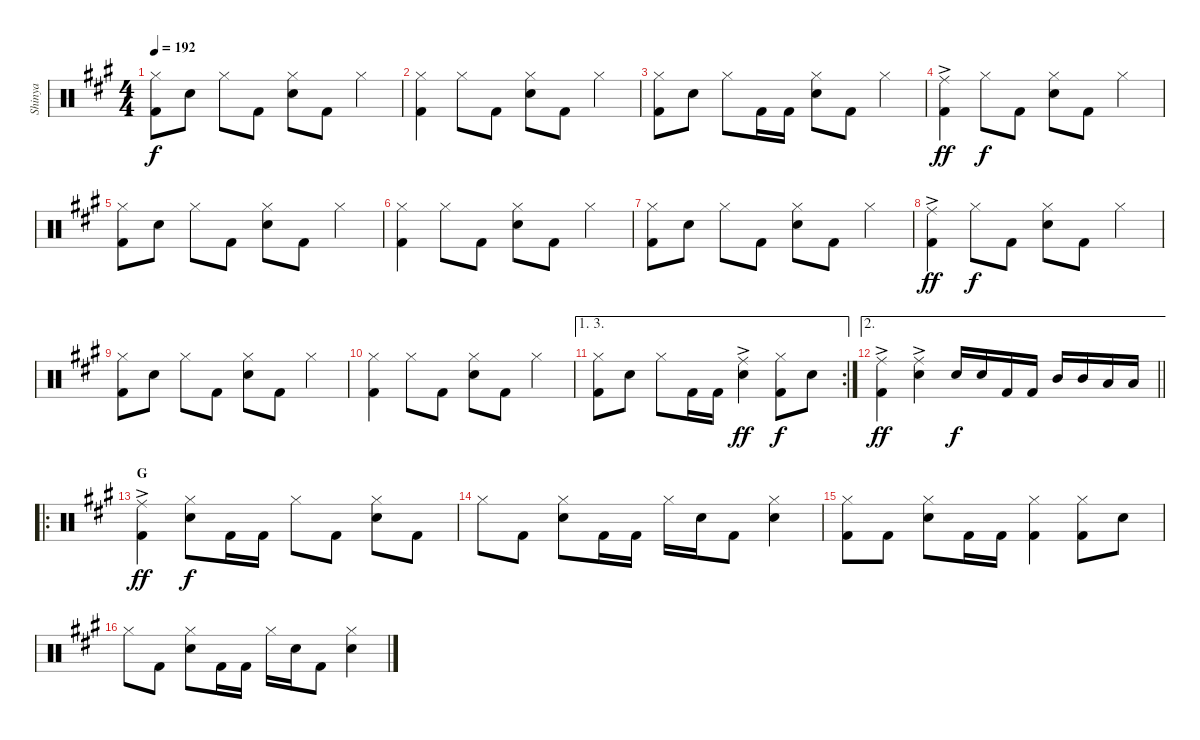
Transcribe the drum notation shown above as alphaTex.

\track ("Shinya" "Shinya") {instrument percussion}
\staff {score}
\articulation defaults
\ts (4 4)
\tempo 192
\clef neutral
\ks a
("Hi-Hat (closed)" "Kick (hit) 2").8{dy f} "Snare (hit) 2".8 "Hi-Hat (closed)".8 "Kick (hit) 2".8 ("Hi-Hat (closed)" "Snare (hit) 2").8 "Kick (hit) 2".8 "Hi-Hat (closed)".4 |
("Hi-Hat (closed)" "Kick (hit) 2").4 "Hi-Hat (closed)".8 "Kick (hit) 2".8 ("Hi-Hat (closed)" "Snare (hit) 2").8 "Kick (hit) 2".8 "Hi-Hat (closed)".4 |
("Hi-Hat (closed)" "Kick (hit) 2").8 "Snare (hit) 2".8 "Hi-Hat (closed)".8 "Kick (hit) 2".16 "Kick (hit) 2".16 ("Hi-Hat (closed)" "Snare (hit) 2").8 "Kick (hit) 2".8 "Hi-Hat (closed)".4 |
("Ride (middle)"{ac} "Kick (hit) 2").4{dy ff} "Hi-Hat (closed)".8{dy f} "Kick (hit) 2".8 ("Hi-Hat (closed)" "Snare (hit) 2").8 "Kick (hit) 2".8 "Hi-Hat (closed)".4 |
("Hi-Hat (closed)" "Kick (hit) 2").8 "Snare (hit) 2".8 "Hi-Hat (closed)".8 "Kick (hit) 2".8 ("Hi-Hat (closed)" "Snare (hit) 2").8 "Kick (hit) 2".8 "Hi-Hat (closed)".4 |
("Hi-Hat (closed)" "Kick (hit) 2").4 "Hi-Hat (closed)".8 "Kick (hit) 2".8 ("Hi-Hat (closed)" "Snare (hit) 2").8 "Kick (hit) 2".8 "Hi-Hat (closed)".4 |
("Hi-Hat (closed)" "Kick (hit) 2").8 "Snare (hit) 2".8 "Hi-Hat (closed)".8 "Kick (hit) 2".8 ("Hi-Hat (closed)" "Snare (hit) 2").8 "Kick (hit) 2".8 "Hi-Hat (closed)".4 |
("Ride (middle)"{ac} "Kick (hit) 2").4{dy ff} "Hi-Hat (closed)".8{dy f} "Kick (hit) 2".8 ("Hi-Hat (closed)" "Snare (hit) 2").8 "Kick (hit) 2".8 "Hi-Hat (closed)".4 |
("Hi-Hat (closed)" "Kick (hit) 2").8 "Snare (hit) 2".8 "Hi-Hat (closed)".8 "Kick (hit) 2".8 ("Hi-Hat (closed)" "Snare (hit) 2").8 "Kick (hit) 2".8 "Hi-Hat (closed)".4 |
("Hi-Hat (closed)" "Kick (hit) 2").4 "Hi-Hat (closed)".8 "Kick (hit) 2".8 ("Hi-Hat (closed)" "Snare (hit) 2").8 "Kick (hit) 2".8 "Hi-Hat (closed)".4 |
\ae (1 3)
\rc 2
("Hi-Hat (closed)" "Kick (hit) 2").8 "Snare (hit) 2".8 "Hi-Hat (closed)".8 "Kick (hit) 2".16 "Kick (hit) 2".16 ("Ride (middle)"{ac} "Snare (hit) 2").4{dy ff} ("Hi-Hat (closed)" "Kick (hit) 2").8{dy f} "Snare (hit) 2".8 |
\ae 2
\barLineRight lightlight
("Ride (middle)"{ac} "Kick (hit) 2").4{dy ff} ("Ride (middle)"{ac} "Snare (hit) 2").4 "Snare (hit) 2".16{dy f} "Snare (hit) 2".16 "Kick (hit) 2".16 "Kick (hit) 2".16 "Mid Tom (hit)".16 "Mid Tom (hit)".16 "Low Tom (hit)".16 "Low Tom (hit)".16 |
\ro
\section ("" "G")
("Ride (middle)"{ac} "Kick (hit) 2").4{dy ff} ("Hi-Hat (closed)" "Snare (hit) 2").8{dy f} "Kick (hit) 2".16 "Kick (hit) 2".16 "Hi-Hat (closed)".8 "Kick (hit) 2".8 ("Hi-Hat (closed)" "Snare (hit) 2").8 "Kick (hit) 2".8 |
"Hi-Hat (closed)".8 "Kick (hit) 2".8 ("Hi-Hat (closed)" "Snare (hit) 2").8 "Kick (hit) 2".16 "Kick (hit) 2".16 "Hi-Hat (closed)".16 "Snare (hit) 2".16 "Kick (hit) 2".8 ("Hi-Hat (closed)" "Snare (hit) 2").4 |
("Hi-Hat (closed)" "Kick (hit) 2").8 "Kick (hit) 2".8 ("Hi-Hat (closed)" "Snare (hit) 2").8 "Kick (hit) 2".16 "Kick (hit) 2".16 ("Hi-Hat (closed)" "Kick (hit) 2").4 ("Hi-Hat (closed)" "Kick (hit) 2").8 "Snare (hit) 2".8 |
"Hi-Hat (closed)".8 "Kick (hit) 2".8 ("Hi-Hat (closed)" "Snare (hit) 2").8 "Kick (hit) 2".16 "Kick (hit) 2".16 "Hi-Hat (closed)".16 "Snare (hit) 2".16 "Kick (hit) 2".8 ("Hi-Hat (closed)" "Snare (hit) 2").4
